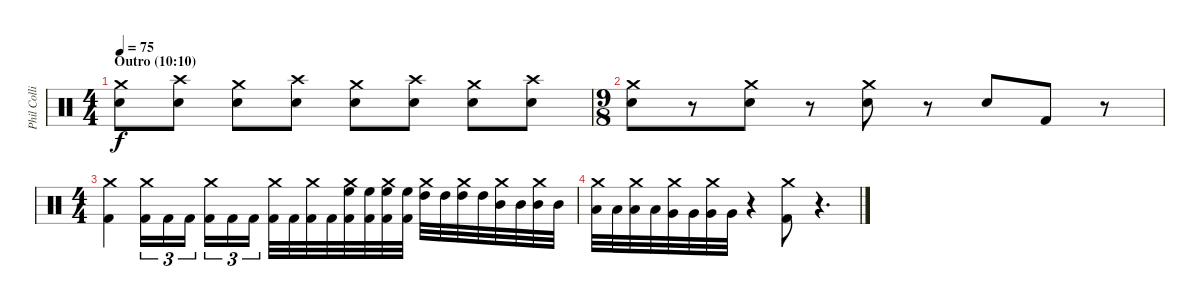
\track ("Phil Collins (drums)" "Phil Colli") {instrument percussion}
\staff {score}
\articulation defaults
\ts (4 4)
\section ("" "Outro (10:10)")
\tempo 75
\clef neutral
\ks c
("Crash medium (hit)" "Electric Snare (hit)").8{dy f} ("Crash high (hit)" "Electric Snare (hit)").8 ("Crash medium (hit)" "Electric Snare (hit)").8 ("Crash high (hit)" "Electric Snare (hit)").8 ("Crash medium (hit)" "Electric Snare (hit)").8 ("Crash high (hit)" "Electric Snare (hit)").8 ("Crash medium (hit)" "Electric Snare (hit)").8 ("Crash high (hit)" "Electric Snare (hit)").8 |
\ts (9 8)
("Crash medium (hit)" "Electric Snare (hit)").8 r.8 ("Crash medium (hit)" "Electric Snare (hit)").8 r.8 ("Crash medium (hit)" "Electric Snare (hit)").8 r.8 "Electric Snare (hit)".8 "Kick (hit) 2".8 r.8 |
\ts (4 4)
("Crash medium (hit)" "Kick (hit) 2").4 ("Crash medium (hit)" "Kick (hit) 2").16{tu (3 2)} "Kick (hit) 2".16{tu (3 2)} "Kick (hit) 2".16{tu (3 2)} ("Crash medium (hit)" "Kick (hit) 2").16{tu (3 2)} "Kick (hit) 2".16{tu (3 2)} "Kick (hit) 2".16{tu (3 2)} ("Crash medium (hit)" "Kick (hit) 2").32 "Kick (hit) 2".32 ("Crash medium (hit)" "Kick (hit) 2").32 "Kick (hit) 2".32 ("Crash medium (hit)" "High Floor Tom (hit)" "Kick (hit) 2").32 ("High Floor Tom (hit)" "Kick (hit) 2").32 ("Crash medium (hit)" "High Floor Tom (hit)" "Kick (hit) 2").32 ("High Floor Tom (hit)" "Kick (hit) 2").32 ("Crash medium (hit)" "High Tom (hit)").32 "High Tom (hit)".32 ("Crash medium (hit)" "High Tom (hit)").32 "High Tom (hit)".32 ("Crash medium (hit)" "Mid Tom (hit)").32 "Mid Tom (hit)".32 ("Crash medium (hit)" "Mid Tom (hit)").32 "Mid Tom (hit)".32 |
("Crash medium (hit)" "Low Tom (hit)").32 "Low Tom (hit)".32 ("Crash medium (hit)" "Low Tom (hit)").32 "Low Tom (hit)".32 ("Crash medium (hit)" "Very Low Tom (hit)").32 "Very Low Tom (hit)".32 ("Crash medium (hit)" "Very Low Tom (hit)").32 "Very Low Tom (hit)".32 r.4 ("Crash medium (hit)" "Kick (hit) 2").8 r.4{d}
